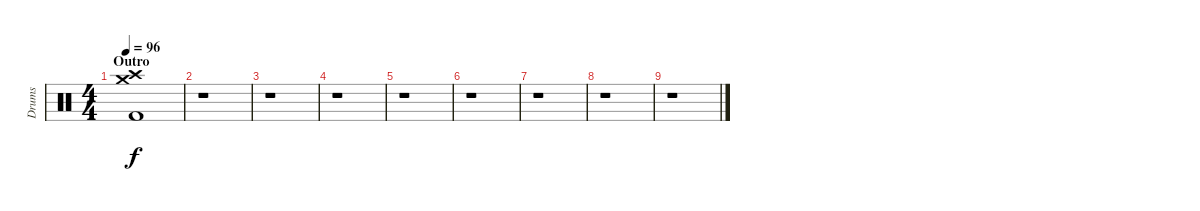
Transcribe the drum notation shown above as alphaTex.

\track ("Drums" "Drums") {instrument percussion}
\staff {score}
\articulation defaults
\ts (4 4)
\section ("" "Outro")
\tempo 96
\clef neutral
\ks c
("Crash high (hit)" "Crash medium (hit)" "Kick (hit) 2").1{dy f} |
r.1 |
r.1 |
r.1 |
r.1 |
r.1 |
r.1 |
r.1 |
r.1
